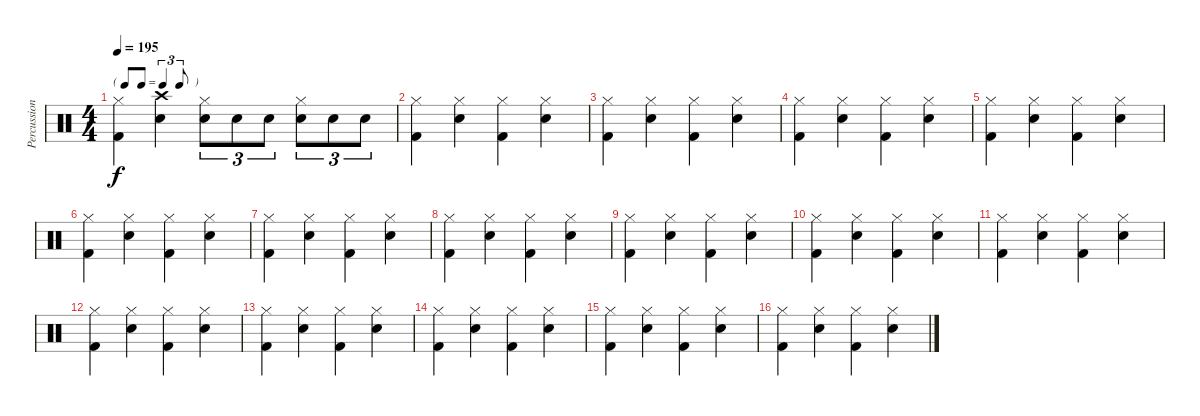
\track ("Percussions" "Percussion") {instrument percussion}
\staff {score}
\articulation defaults
\ts (4 4)
\tf triplet8th
\tempo 195
\clef neutral
\ks c
("Hi-Hat (closed)" "Kick (hit) 2").4{dy f} ("Snare (hit) 2" "Crash high (hit)").4 ("Snare (hit) 2" "Hi-Hat (closed)").8{tu (3 2)} "Snare (hit) 2".8{tu (3 2)} "Snare (hit) 2".8{tu (3 2)} ("Snare (hit) 2" "Hi-Hat (closed)").8{tu (3 2)} "Snare (hit) 2".8{tu (3 2)} "Snare (hit) 2".8{tu (3 2)} |
("Hi-Hat (closed)" "Kick (hit) 2").4 ("Snare (hit) 2" "Hi-Hat (closed)").4 ("Hi-Hat (closed)" "Kick (hit) 2").4 ("Snare (hit) 2" "Hi-Hat (closed)").4 |
("Hi-Hat (closed)" "Kick (hit) 2").4 ("Snare (hit) 2" "Hi-Hat (closed)").4 ("Hi-Hat (closed)" "Kick (hit) 2").4 ("Snare (hit) 2" "Hi-Hat (closed)").4 |
("Hi-Hat (closed)" "Kick (hit) 2").4 ("Snare (hit) 2" "Hi-Hat (closed)").4 ("Hi-Hat (closed)" "Kick (hit) 2").4 ("Snare (hit) 2" "Hi-Hat (closed)").4 |
("Hi-Hat (closed)" "Kick (hit) 2").4 ("Snare (hit) 2" "Hi-Hat (closed)").4 ("Hi-Hat (closed)" "Kick (hit) 2").4 ("Snare (hit) 2" "Hi-Hat (closed)").4 |
("Hi-Hat (closed)" "Kick (hit) 2").4 ("Snare (hit) 2" "Hi-Hat (closed)").4 ("Hi-Hat (closed)" "Kick (hit) 2").4 ("Snare (hit) 2" "Hi-Hat (closed)").4 |
("Hi-Hat (closed)" "Kick (hit) 2").4 ("Snare (hit) 2" "Hi-Hat (closed)").4 ("Hi-Hat (closed)" "Kick (hit) 2").4 ("Snare (hit) 2" "Hi-Hat (closed)").4 |
("Hi-Hat (closed)" "Kick (hit) 2").4 ("Snare (hit) 2" "Hi-Hat (closed)").4 ("Hi-Hat (closed)" "Kick (hit) 2").4 ("Snare (hit) 2" "Hi-Hat (closed)").4 |
("Hi-Hat (closed)" "Kick (hit) 2").4 ("Snare (hit) 2" "Hi-Hat (closed)").4 ("Hi-Hat (closed)" "Kick (hit) 2").4 ("Snare (hit) 2" "Hi-Hat (closed)").4 |
("Hi-Hat (closed)" "Kick (hit) 2").4 ("Snare (hit) 2" "Hi-Hat (closed)").4 ("Hi-Hat (closed)" "Kick (hit) 2").4 ("Snare (hit) 2" "Hi-Hat (closed)").4 |
("Hi-Hat (closed)" "Kick (hit) 2").4 ("Snare (hit) 2" "Hi-Hat (closed)").4 ("Hi-Hat (closed)" "Kick (hit) 2").4 ("Snare (hit) 2" "Hi-Hat (closed)").4 |
("Hi-Hat (closed)" "Kick (hit) 2").4 ("Snare (hit) 2" "Hi-Hat (closed)").4 ("Hi-Hat (closed)" "Kick (hit) 2").4 ("Snare (hit) 2" "Hi-Hat (closed)").4 |
("Hi-Hat (closed)" "Kick (hit) 2").4 ("Snare (hit) 2" "Hi-Hat (closed)").4 ("Hi-Hat (closed)" "Kick (hit) 2").4 ("Snare (hit) 2" "Hi-Hat (closed)").4 |
("Hi-Hat (closed)" "Kick (hit) 2").4 ("Snare (hit) 2" "Hi-Hat (closed)").4 ("Hi-Hat (closed)" "Kick (hit) 2").4 ("Snare (hit) 2" "Hi-Hat (closed)").4 |
("Hi-Hat (closed)" "Kick (hit) 2").4 ("Snare (hit) 2" "Hi-Hat (closed)").4 ("Hi-Hat (closed)" "Kick (hit) 2").4 ("Snare (hit) 2" "Hi-Hat (closed)").4 |
("Hi-Hat (closed)" "Kick (hit) 2").4 ("Snare (hit) 2" "Hi-Hat (closed)").4 ("Hi-Hat (closed)" "Kick (hit) 2").4 ("Snare (hit) 2" "Hi-Hat (closed)").4
